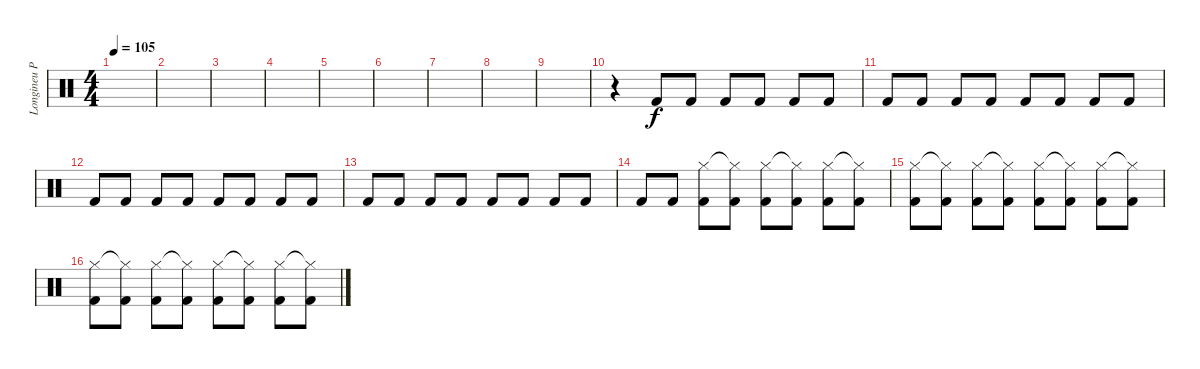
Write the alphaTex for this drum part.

\track ("Longineu Parsons III" "Longineu P") {instrument percussion}
\staff {score}
\articulation defaults
\ts (4 4)
\tempo 105
\clef neutral
\ks c
|
|
|
|
|
|
|
|
|
r.4 "Kick (hit) 2".8 "Kick (hit) 2".8 "Kick (hit) 2".8 "Kick (hit) 2".8 "Kick (hit) 2".8 "Kick (hit) 2".8 |
"Kick (hit) 2".8 "Kick (hit) 2".8 "Kick (hit) 2".8 "Kick (hit) 2".8 "Kick (hit) 2".8 "Kick (hit) 2".8 "Kick (hit) 2".8 "Kick (hit) 2".8 |
"Kick (hit) 2".8 "Kick (hit) 2".8 "Kick (hit) 2".8 "Kick (hit) 2".8 "Kick (hit) 2".8 "Kick (hit) 2".8 "Kick (hit) 2".8 "Kick (hit) 2".8 |
"Kick (hit) 2".8 "Kick (hit) 2".8 "Kick (hit) 2".8 "Kick (hit) 2".8 "Kick (hit) 2".8 "Kick (hit) 2".8 "Kick (hit) 2".8 "Kick (hit) 2".8 |
"Kick (hit) 2".8 "Kick (hit) 2".8 ("Hi-Hat (closed)" "Kick (hit) 2").8 ("Hi-Hat (closed)"{t} "Kick (hit) 2").8 ("Hi-Hat (closed)" "Kick (hit) 2").8 ("Hi-Hat (closed)"{t} "Kick (hit) 2").8 ("Hi-Hat (closed)" "Kick (hit) 2").8 ("Hi-Hat (closed)"{t} "Kick (hit) 2").8 |
("Hi-Hat (closed)" "Kick (hit) 2").8 ("Hi-Hat (closed)"{t} "Kick (hit) 2").8 ("Hi-Hat (closed)" "Kick (hit) 2").8 ("Hi-Hat (closed)"{t} "Kick (hit) 2").8 ("Hi-Hat (closed)" "Kick (hit) 2").8 ("Hi-Hat (closed)"{t} "Kick (hit) 2").8 ("Hi-Hat (closed)" "Kick (hit) 2").8 ("Hi-Hat (closed)"{t} "Kick (hit) 2").8 |
("Hi-Hat (closed)" "Kick (hit) 2").8 ("Hi-Hat (closed)"{t} "Kick (hit) 2").8 ("Hi-Hat (closed)" "Kick (hit) 2").8 ("Hi-Hat (closed)"{t} "Kick (hit) 2").8 ("Hi-Hat (closed)" "Kick (hit) 2").8 ("Hi-Hat (closed)"{t} "Kick (hit) 2").8 ("Hi-Hat (closed)" "Kick (hit) 2").8 ("Hi-Hat (closed)"{t} "Kick (hit) 2").8
